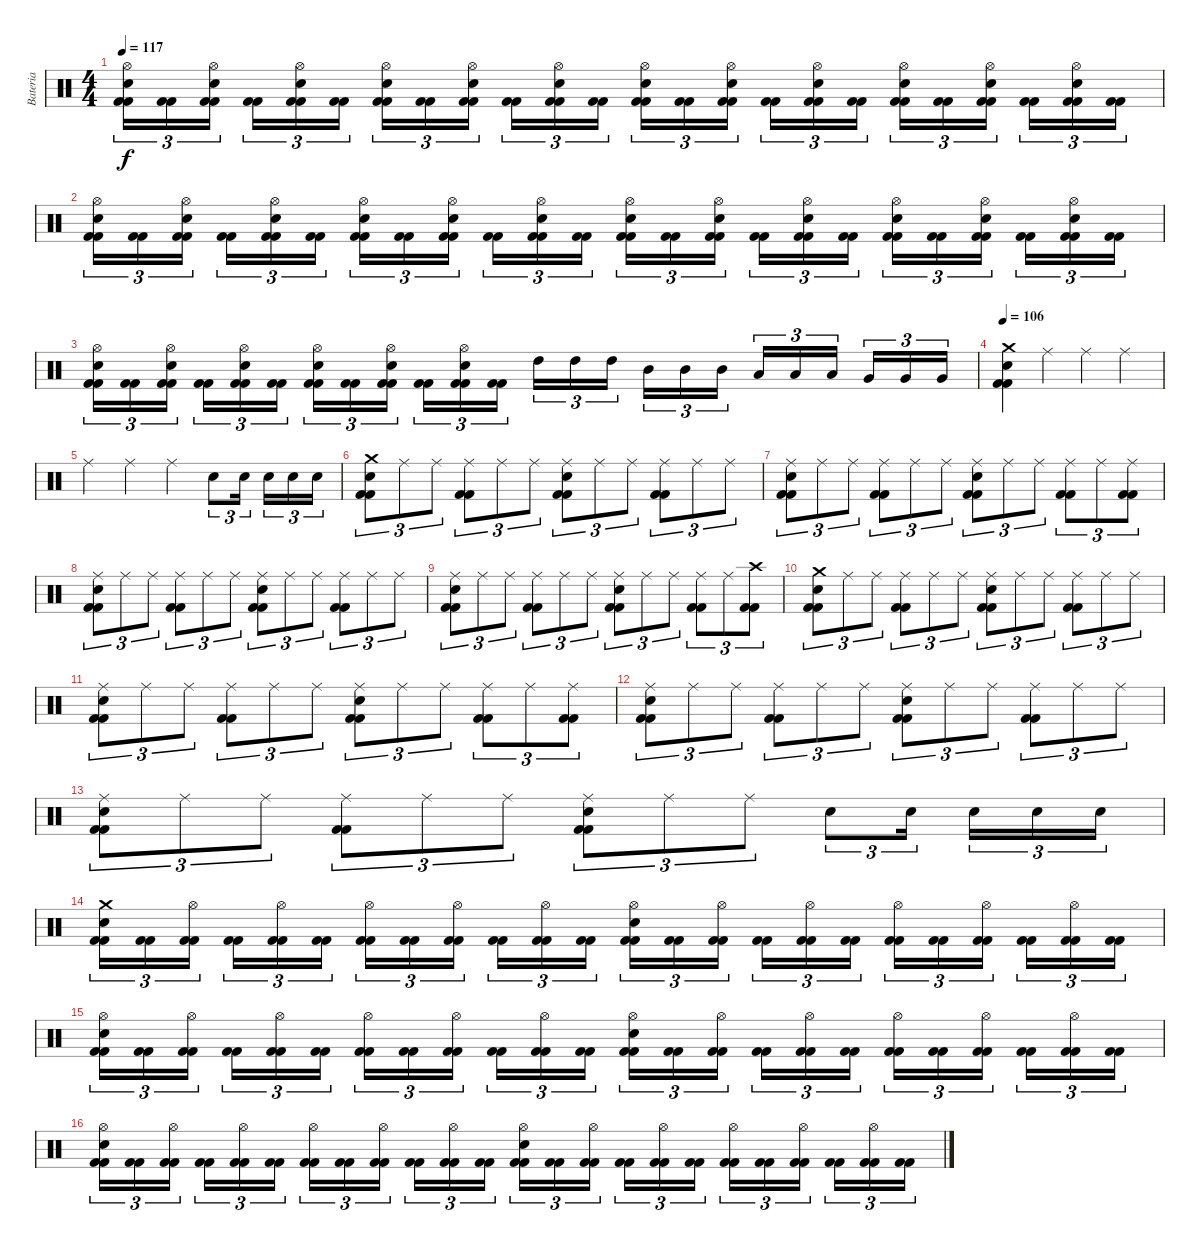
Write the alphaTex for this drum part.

\track ("Bateria" "Bateria") {instrument percussion}
\staff {score}
\articulation defaults
\ts (4 4)
\tempo 117
\clef neutral
\ks c
("Kick (hit) 2" "Kick (hit) 2" "Snare (hit) 2" "Hi-Hat (open)").16{tu (3 2) dy f} ("Kick (hit) 2" "Kick (hit) 2").16{tu (3 2)} ("Kick (hit) 2" "Kick (hit) 2" "Snare (hit) 2" "Hi-Hat (open)").16{tu (3 2)} ("Kick (hit) 2" "Kick (hit) 2").16{tu (3 2)} ("Kick (hit) 2" "Kick (hit) 2" "Snare (hit) 2" "Hi-Hat (open)").16{tu (3 2)} ("Kick (hit) 2" "Kick (hit) 2").16{tu (3 2)} ("Kick (hit) 2" "Kick (hit) 2" "Snare (hit) 2" "Hi-Hat (open)").16{tu (3 2)} ("Kick (hit) 2" "Kick (hit) 2").16{tu (3 2)} ("Kick (hit) 2" "Kick (hit) 2" "Snare (hit) 2" "Hi-Hat (open)").16{tu (3 2)} ("Kick (hit) 2" "Kick (hit) 2").16{tu (3 2)} ("Kick (hit) 2" "Kick (hit) 2" "Snare (hit) 2" "Hi-Hat (open)").16{tu (3 2)} ("Kick (hit) 2" "Kick (hit) 2").16{tu (3 2)} ("Kick (hit) 2" "Kick (hit) 2" "Snare (hit) 2" "Hi-Hat (open)").16{tu (3 2)} ("Kick (hit) 2" "Kick (hit) 2").16{tu (3 2)} ("Kick (hit) 2" "Kick (hit) 2" "Snare (hit) 2" "Hi-Hat (open)").16{tu (3 2)} ("Kick (hit) 2" "Kick (hit) 2").16{tu (3 2)} ("Kick (hit) 2" "Kick (hit) 2" "Snare (hit) 2" "Hi-Hat (open)").16{tu (3 2)} ("Kick (hit) 2" "Kick (hit) 2").16{tu (3 2)} ("Kick (hit) 2" "Kick (hit) 2" "Snare (hit) 2" "Hi-Hat (open)").16{tu (3 2)} ("Kick (hit) 2" "Kick (hit) 2").16{tu (3 2)} ("Kick (hit) 2" "Kick (hit) 2" "Snare (hit) 2" "Hi-Hat (open)").16{tu (3 2)} ("Kick (hit) 2" "Kick (hit) 2").16{tu (3 2)} ("Kick (hit) 2" "Kick (hit) 2" "Snare (hit) 2" "Hi-Hat (open)").16{tu (3 2)} ("Kick (hit) 2" "Kick (hit) 2").16{tu (3 2)} |
("Kick (hit) 2" "Kick (hit) 2" "Snare (hit) 2" "Hi-Hat (open)").16{tu (3 2)} ("Kick (hit) 2" "Kick (hit) 2").16{tu (3 2)} ("Kick (hit) 2" "Kick (hit) 2" "Snare (hit) 2" "Hi-Hat (open)").16{tu (3 2)} ("Kick (hit) 2" "Kick (hit) 2").16{tu (3 2)} ("Kick (hit) 2" "Kick (hit) 2" "Snare (hit) 2" "Hi-Hat (open)").16{tu (3 2)} ("Kick (hit) 2" "Kick (hit) 2").16{tu (3 2)} ("Kick (hit) 2" "Kick (hit) 2" "Snare (hit) 2" "Hi-Hat (open)").16{tu (3 2)} ("Kick (hit) 2" "Kick (hit) 2").16{tu (3 2)} ("Kick (hit) 2" "Kick (hit) 2" "Snare (hit) 2" "Hi-Hat (open)").16{tu (3 2)} ("Kick (hit) 2" "Kick (hit) 2").16{tu (3 2)} ("Kick (hit) 2" "Kick (hit) 2" "Snare (hit) 2" "Hi-Hat (open)").16{tu (3 2)} ("Kick (hit) 2" "Kick (hit) 2").16{tu (3 2)} ("Kick (hit) 2" "Kick (hit) 2" "Snare (hit) 2" "Hi-Hat (open)").16{tu (3 2)} ("Kick (hit) 2" "Kick (hit) 2").16{tu (3 2)} ("Kick (hit) 2" "Kick (hit) 2" "Snare (hit) 2" "Hi-Hat (open)").16{tu (3 2)} ("Kick (hit) 2" "Kick (hit) 2").16{tu (3 2)} ("Kick (hit) 2" "Kick (hit) 2" "Snare (hit) 2" "Hi-Hat (open)").16{tu (3 2)} ("Kick (hit) 2" "Kick (hit) 2").16{tu (3 2)} ("Kick (hit) 2" "Kick (hit) 2" "Snare (hit) 2" "Hi-Hat (open)").16{tu (3 2)} ("Kick (hit) 2" "Kick (hit) 2").16{tu (3 2)} ("Kick (hit) 2" "Kick (hit) 2" "Snare (hit) 2" "Hi-Hat (open)").16{tu (3 2)} ("Kick (hit) 2" "Kick (hit) 2").16{tu (3 2)} ("Kick (hit) 2" "Kick (hit) 2" "Snare (hit) 2" "Hi-Hat (open)").16{tu (3 2)} ("Kick (hit) 2" "Kick (hit) 2").16{tu (3 2)} |
("Kick (hit) 2" "Kick (hit) 2" "Snare (hit) 2" "Hi-Hat (open)").16{tu (3 2)} ("Kick (hit) 2" "Kick (hit) 2").16{tu (3 2)} ("Kick (hit) 2" "Kick (hit) 2" "Snare (hit) 2" "Hi-Hat (open)").16{tu (3 2)} ("Kick (hit) 2" "Kick (hit) 2").16{tu (3 2)} ("Kick (hit) 2" "Kick (hit) 2" "Snare (hit) 2" "Hi-Hat (open)").16{tu (3 2)} ("Kick (hit) 2" "Kick (hit) 2").16{tu (3 2)} ("Kick (hit) 2" "Kick (hit) 2" "Snare (hit) 2" "Hi-Hat (open)").16{tu (3 2)} ("Kick (hit) 2" "Kick (hit) 2").16{tu (3 2)} ("Kick (hit) 2" "Kick (hit) 2" "Snare (hit) 2" "Hi-Hat (open)").16{tu (3 2)} ("Kick (hit) 2" "Kick (hit) 2").16{tu (3 2)} ("Kick (hit) 2" "Kick (hit) 2" "Snare (hit) 2" "Hi-Hat (open)").16{tu (3 2)} ("Kick (hit) 2" "Kick (hit) 2").16{tu (3 2)} "High Tom (hit)".16{tu (3 2)} "High Tom (hit)".16{tu (3 2)} "High Tom (hit)".16{tu (3 2)} "Mid Tom (hit)".16{tu (3 2)} "Mid Tom (hit)".16{tu (3 2)} "Mid Tom (hit)".16{tu (3 2)} "Low Tom (hit)".16{tu (3 2)} "Low Tom (hit)".16{tu (3 2)} "Low Tom (hit)".16{tu (3 2)} "Very Low Tom (hit)".16{tu (3 2)} "Very Low Tom (hit)".16{tu (3 2)} "Very Low Tom (hit)".16{tu (3 2)} |
\tempo 106
("Kick (hit) 2" "Kick (hit) 2" "Snare (hit) 2" "Crash medium (hit)").4 "Ride (middle)".4 "Ride (middle)".4 "Ride (middle)".4 |
"Ride (middle)".4 "Ride (middle)".4 "Ride (middle)".4 "Snare (hit) 2".8{tu (3 2)} "Snare (hit) 2".16{tu (3 2)} "Snare (hit) 2".16{tu (3 2)} "Snare (hit) 2".16{tu (3 2)} "Snare (hit) 2".16{tu (3 2)} |
("Kick (hit) 2" "Kick (hit) 2" "Snare (hit) 2" "Crash medium (hit)").8{tu (3 2)} "Ride (middle)".8{tu (3 2)} "Ride (middle)".8{tu (3 2)} ("Kick (hit) 2" "Kick (hit) 2" "Ride (middle)").8{tu (3 2)} "Ride (middle)".8{tu (3 2)} "Ride (middle)".8{tu (3 2)} ("Kick (hit) 2" "Kick (hit) 2" "Snare (hit) 2" "Ride (middle)").8{tu (3 2)} "Ride (middle)".8{tu (3 2)} "Ride (middle)".8{tu (3 2)} ("Kick (hit) 2" "Kick (hit) 2" "Ride (middle)").8{tu (3 2)} "Ride (middle)".8{tu (3 2)} "Ride (middle)".8{tu (3 2)} |
("Kick (hit) 2" "Kick (hit) 2" "Snare (hit) 2" "Ride (middle)").8{tu (3 2)} "Ride (middle)".8{tu (3 2)} "Ride (middle)".8{tu (3 2)} ("Kick (hit) 2" "Kick (hit) 2" "Ride (middle)").8{tu (3 2)} "Ride (middle)".8{tu (3 2)} "Ride (middle)".8{tu (3 2)} ("Kick (hit) 2" "Kick (hit) 2" "Snare (hit) 2" "Ride (middle)").8{tu (3 2)} "Ride (middle)".8{tu (3 2)} "Ride (middle)".8{tu (3 2)} ("Kick (hit) 2" "Kick (hit) 2" "Ride (middle)").8{tu (3 2)} "Ride (middle)".8{tu (3 2)} ("Kick (hit) 2" "Kick (hit) 2" "Ride (middle)").8{tu (3 2)} |
("Kick (hit) 2" "Kick (hit) 2" "Snare (hit) 2" "Ride (middle)").8{tu (3 2)} "Ride (middle)".8{tu (3 2)} "Ride (middle)".8{tu (3 2)} ("Kick (hit) 2" "Kick (hit) 2" "Ride (middle)").8{tu (3 2)} "Ride (middle)".8{tu (3 2)} "Ride (middle)".8{tu (3 2)} ("Kick (hit) 2" "Kick (hit) 2" "Snare (hit) 2" "Ride (middle)").8{tu (3 2)} "Ride (middle)".8{tu (3 2)} "Ride (middle)".8{tu (3 2)} ("Kick (hit) 2" "Kick (hit) 2" "Ride (middle)").8{tu (3 2)} "Ride (middle)".8{tu (3 2)} "Ride (middle)".8{tu (3 2)} |
("Kick (hit) 2" "Kick (hit) 2" "Snare (hit) 2" "Ride (middle)").8{tu (3 2)} "Ride (middle)".8{tu (3 2)} "Ride (middle)".8{tu (3 2)} ("Kick (hit) 2" "Kick (hit) 2" "Ride (middle)").8{tu (3 2)} "Ride (middle)".8{tu (3 2)} "Ride (middle)".8{tu (3 2)} ("Kick (hit) 2" "Kick (hit) 2" "Snare (hit) 2" "Ride (middle)").8{tu (3 2)} "Ride (middle)".8{tu (3 2)} "Ride (middle)".8{tu (3 2)} ("Kick (hit) 2" "Kick (hit) 2" "Ride (middle)").8{tu (3 2)} "Ride (middle)".8{tu (3 2)} ("Kick (hit) 2" "Kick (hit) 2" "Crash high (hit)").8{tu (3 2)} |
("Kick (hit) 2" "Kick (hit) 2" "Snare (hit) 2" "Crash medium (hit)").8{tu (3 2)} "Ride (middle)".8{tu (3 2)} "Ride (middle)".8{tu (3 2)} ("Kick (hit) 2" "Kick (hit) 2" "Ride (middle)").8{tu (3 2)} "Ride (middle)".8{tu (3 2)} "Ride (middle)".8{tu (3 2)} ("Kick (hit) 2" "Kick (hit) 2" "Snare (hit) 2" "Ride (middle)").8{tu (3 2)} "Ride (middle)".8{tu (3 2)} "Ride (middle)".8{tu (3 2)} ("Kick (hit) 2" "Kick (hit) 2" "Ride (middle)").8{tu (3 2)} "Ride (middle)".8{tu (3 2)} "Ride (middle)".8{tu (3 2)} |
("Kick (hit) 2" "Kick (hit) 2" "Snare (hit) 2" "Ride (middle)").8{tu (3 2)} "Ride (middle)".8{tu (3 2)} "Ride (middle)".8{tu (3 2)} ("Kick (hit) 2" "Kick (hit) 2" "Ride (middle)").8{tu (3 2)} "Ride (middle)".8{tu (3 2)} "Ride (middle)".8{tu (3 2)} ("Kick (hit) 2" "Kick (hit) 2" "Snare (hit) 2" "Ride (middle)").8{tu (3 2)} "Ride (middle)".8{tu (3 2)} "Ride (middle)".8{tu (3 2)} ("Kick (hit) 2" "Kick (hit) 2" "Ride (middle)").8{tu (3 2)} "Ride (middle)".8{tu (3 2)} ("Kick (hit) 2" "Kick (hit) 2" "Ride (middle)").8{tu (3 2)} |
("Kick (hit) 2" "Kick (hit) 2" "Snare (hit) 2" "Ride (middle)").8{tu (3 2)} "Ride (middle)".8{tu (3 2)} "Ride (middle)".8{tu (3 2)} ("Kick (hit) 2" "Kick (hit) 2" "Ride (middle)").8{tu (3 2)} "Ride (middle)".8{tu (3 2)} "Ride (middle)".8{tu (3 2)} ("Kick (hit) 2" "Kick (hit) 2" "Snare (hit) 2" "Ride (middle)").8{tu (3 2)} "Ride (middle)".8{tu (3 2)} "Ride (middle)".8{tu (3 2)} ("Kick (hit) 2" "Kick (hit) 2" "Ride (middle)").8{tu (3 2)} "Ride (middle)".8{tu (3 2)} "Ride (middle)".8{tu (3 2)} |
("Kick (hit) 2" "Kick (hit) 2" "Snare (hit) 2" "Ride (middle)").8{tu (3 2)} "Ride (middle)".8{tu (3 2)} "Ride (middle)".8{tu (3 2)} ("Kick (hit) 2" "Kick (hit) 2" "Ride (middle)").8{tu (3 2)} "Ride (middle)".8{tu (3 2)} "Ride (middle)".8{tu (3 2)} ("Kick (hit) 2" "Kick (hit) 2" "Snare (hit) 2" "Ride (middle)").8{tu (3 2)} "Ride (middle)".8{tu (3 2)} "Ride (middle)".8{tu (3 2)} "Snare (hit) 2".8{tu (3 2)} "Snare (hit) 2".16{tu (3 2)} "Snare (hit) 2".16{tu (3 2)} "Snare (hit) 2".16{tu (3 2)} "Snare (hit) 2".16{tu (3 2)} |
("Kick (hit) 2" "Kick (hit) 2" "Snare (hit) 2" "Crash medium (hit)").16{tu (3 2)} ("Kick (hit) 2" "Kick (hit) 2").16{tu (3 2)} ("Kick (hit) 2" "Kick (hit) 2" "Hi-Hat (open)").16{tu (3 2)} ("Kick (hit) 2" "Kick (hit) 2").16{tu (3 2)} ("Kick (hit) 2" "Kick (hit) 2" "Hi-Hat (open)").16{tu (3 2)} ("Kick (hit) 2" "Kick (hit) 2").16{tu (3 2)} ("Kick (hit) 2" "Kick (hit) 2" "Hi-Hat (open)").16{tu (3 2)} ("Kick (hit) 2" "Kick (hit) 2").16{tu (3 2)} ("Kick (hit) 2" "Kick (hit) 2" "Hi-Hat (open)").16{tu (3 2)} ("Kick (hit) 2" "Kick (hit) 2").16{tu (3 2)} ("Kick (hit) 2" "Kick (hit) 2" "Hi-Hat (open)").16{tu (3 2)} ("Kick (hit) 2" "Kick (hit) 2").16{tu (3 2)} ("Kick (hit) 2" "Kick (hit) 2" "Snare (hit) 2" "Hi-Hat (open)").16{tu (3 2)} ("Kick (hit) 2" "Kick (hit) 2").16{tu (3 2)} ("Kick (hit) 2" "Kick (hit) 2" "Hi-Hat (open)").16{tu (3 2)} ("Kick (hit) 2" "Kick (hit) 2").16{tu (3 2)} ("Kick (hit) 2" "Kick (hit) 2" "Hi-Hat (open)").16{tu (3 2)} ("Kick (hit) 2" "Kick (hit) 2").16{tu (3 2)} ("Kick (hit) 2" "Kick (hit) 2" "Hi-Hat (open)").16{tu (3 2)} ("Kick (hit) 2" "Kick (hit) 2").16{tu (3 2)} ("Kick (hit) 2" "Kick (hit) 2" "Hi-Hat (open)").16{tu (3 2)} ("Kick (hit) 2" "Kick (hit) 2").16{tu (3 2)} ("Kick (hit) 2" "Kick (hit) 2" "Hi-Hat (open)").16{tu (3 2)} ("Kick (hit) 2" "Kick (hit) 2").16{tu (3 2)} |
("Kick (hit) 2" "Kick (hit) 2" "Snare (hit) 2" "Hi-Hat (open)").16{tu (3 2)} ("Kick (hit) 2" "Kick (hit) 2").16{tu (3 2)} ("Kick (hit) 2" "Kick (hit) 2" "Hi-Hat (open)").16{tu (3 2)} ("Kick (hit) 2" "Kick (hit) 2").16{tu (3 2)} ("Kick (hit) 2" "Kick (hit) 2" "Hi-Hat (open)").16{tu (3 2)} ("Kick (hit) 2" "Kick (hit) 2").16{tu (3 2)} ("Kick (hit) 2" "Kick (hit) 2" "Hi-Hat (open)").16{tu (3 2)} ("Kick (hit) 2" "Kick (hit) 2").16{tu (3 2)} ("Kick (hit) 2" "Kick (hit) 2" "Hi-Hat (open)").16{tu (3 2)} ("Kick (hit) 2" "Kick (hit) 2").16{tu (3 2)} ("Kick (hit) 2" "Kick (hit) 2" "Hi-Hat (open)").16{tu (3 2)} ("Kick (hit) 2" "Kick (hit) 2").16{tu (3 2)} ("Kick (hit) 2" "Kick (hit) 2" "Snare (hit) 2" "Hi-Hat (open)").16{tu (3 2)} ("Kick (hit) 2" "Kick (hit) 2").16{tu (3 2)} ("Kick (hit) 2" "Kick (hit) 2" "Hi-Hat (open)").16{tu (3 2)} ("Kick (hit) 2" "Kick (hit) 2").16{tu (3 2)} ("Kick (hit) 2" "Kick (hit) 2" "Hi-Hat (open)").16{tu (3 2)} ("Kick (hit) 2" "Kick (hit) 2").16{tu (3 2)} ("Kick (hit) 2" "Kick (hit) 2" "Hi-Hat (open)").16{tu (3 2)} ("Kick (hit) 2" "Kick (hit) 2").16{tu (3 2)} ("Kick (hit) 2" "Kick (hit) 2" "Hi-Hat (open)").16{tu (3 2)} ("Kick (hit) 2" "Kick (hit) 2").16{tu (3 2)} ("Kick (hit) 2" "Kick (hit) 2" "Hi-Hat (open)").16{tu (3 2)} ("Kick (hit) 2" "Kick (hit) 2").16{tu (3 2)} |
("Kick (hit) 2" "Kick (hit) 2" "Snare (hit) 2" "Hi-Hat (open)").16{tu (3 2)} ("Kick (hit) 2" "Kick (hit) 2").16{tu (3 2)} ("Kick (hit) 2" "Kick (hit) 2" "Hi-Hat (open)").16{tu (3 2)} ("Kick (hit) 2" "Kick (hit) 2").16{tu (3 2)} ("Kick (hit) 2" "Kick (hit) 2" "Hi-Hat (open)").16{tu (3 2)} ("Kick (hit) 2" "Kick (hit) 2").16{tu (3 2)} ("Kick (hit) 2" "Kick (hit) 2" "Hi-Hat (open)").16{tu (3 2)} ("Kick (hit) 2" "Kick (hit) 2").16{tu (3 2)} ("Kick (hit) 2" "Kick (hit) 2" "Hi-Hat (open)").16{tu (3 2)} ("Kick (hit) 2" "Kick (hit) 2").16{tu (3 2)} ("Kick (hit) 2" "Kick (hit) 2" "Hi-Hat (open)").16{tu (3 2)} ("Kick (hit) 2" "Kick (hit) 2").16{tu (3 2)} ("Kick (hit) 2" "Kick (hit) 2" "Snare (hit) 2" "Hi-Hat (open)").16{tu (3 2)} ("Kick (hit) 2" "Kick (hit) 2").16{tu (3 2)} ("Kick (hit) 2" "Kick (hit) 2" "Hi-Hat (open)").16{tu (3 2)} ("Kick (hit) 2" "Kick (hit) 2").16{tu (3 2)} ("Kick (hit) 2" "Kick (hit) 2" "Hi-Hat (open)").16{tu (3 2)} ("Kick (hit) 2" "Kick (hit) 2").16{tu (3 2)} ("Kick (hit) 2" "Kick (hit) 2" "Hi-Hat (open)").16{tu (3 2)} ("Kick (hit) 2" "Kick (hit) 2").16{tu (3 2)} ("Kick (hit) 2" "Kick (hit) 2" "Hi-Hat (open)").16{tu (3 2)} ("Kick (hit) 2" "Kick (hit) 2").16{tu (3 2)} ("Kick (hit) 2" "Kick (hit) 2" "Hi-Hat (open)").16{tu (3 2)} ("Kick (hit) 2" "Kick (hit) 2").16{tu (3 2)}
